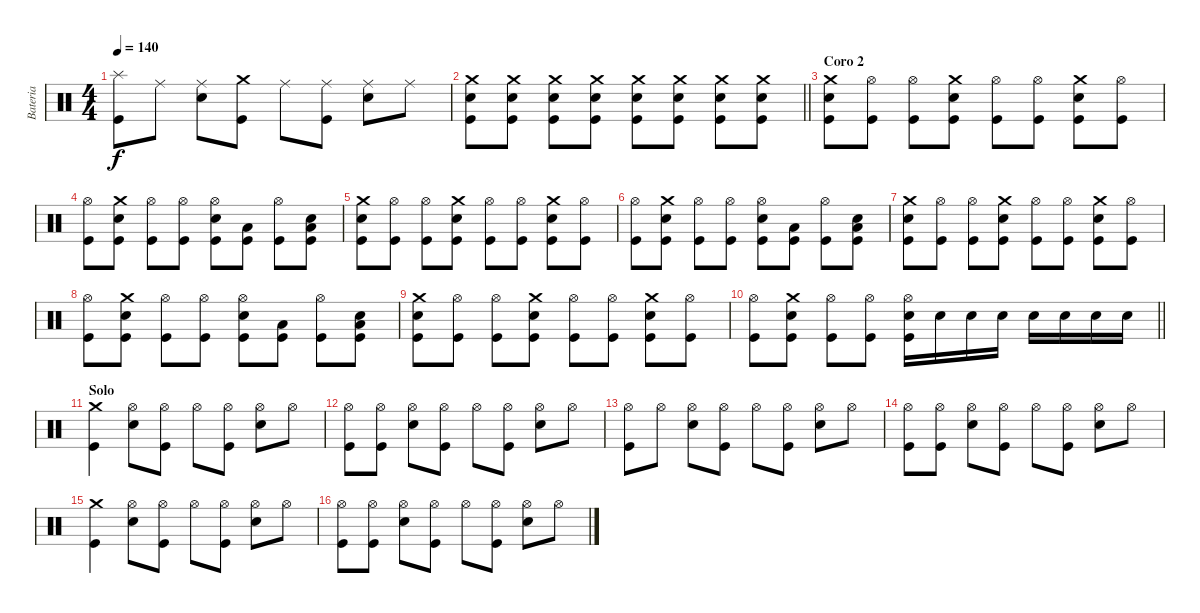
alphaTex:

\track ("Bateria" "Bateria") {instrument percussion}
\staff {score}
\articulation defaults
\ts (4 4)
\tempo 140
\clef neutral
\ks c
("Kick (hit)" "Splash (hit)").8{dy f} "Ride (middle)".8 ("Snare (hit) 2" "Ride (middle)").8 ("Kick (hit)" "Crash medium (hit)").8 "Ride (middle)".8 ("Kick (hit)" "Ride (middle)").8 ("Snare (hit) 2" "Ride (middle)").8 "Ride (middle)".8 |
\barLineRight lightlight
("Kick (hit)" "Snare (hit) 2" "Crash medium (hit)").8 ("Kick (hit)" "Snare (hit) 2" "Crash medium (hit)").8 ("Kick (hit)" "Snare (hit) 2" "Crash medium (hit)").8 ("Kick (hit)" "Snare (hit) 2" "Crash medium (hit)").8 ("Kick (hit)" "Snare (hit) 2" "Crash medium (hit)").8 ("Kick (hit)" "Snare (hit) 2" "Crash medium (hit)").8 ("Kick (hit)" "Snare (hit) 2" "Crash medium (hit)").8 ("Kick (hit)" "Snare (hit) 2" "Crash medium (hit)").8 |
\section ("" "Coro 2")
("Kick (hit)" "Snare (hit) 2" "Crash medium (hit)").8 ("Kick (hit)" "Hi-Hat (open)").8 ("Kick (hit)" "Hi-Hat (open)").8 ("Kick (hit)" "Snare (hit) 2" "Crash medium (hit)").8 ("Kick (hit)" "Hi-Hat (open)").8 ("Kick (hit)" "Hi-Hat (open)").8 ("Kick (hit)" "Snare (hit) 2" "Crash medium (hit)").8 ("Kick (hit)" "Hi-Hat (open)").8 |
("Kick (hit)" "Hi-Hat (open)").8 ("Kick (hit)" "Snare (hit) 2" "Crash medium (hit)").8 ("Kick (hit)" "Hi-Hat (open)").8 ("Kick (hit)" "Hi-Hat (open)").8 ("Kick (hit)" "Snare (hit) 2" "Hi-Hat (open)").8 ("Kick (hit)" "Low Floor Tom (hit)").8 ("Kick (hit)" "Hi-Hat (open)").8 ("Kick (hit)" "Snare (hit) 2" "Low Floor Tom (hit)").8 |
("Kick (hit)" "Snare (hit) 2" "Crash medium (hit)").8 ("Kick (hit)" "Hi-Hat (open)").8 ("Kick (hit)" "Hi-Hat (open)").8 ("Kick (hit)" "Snare (hit) 2" "Crash medium (hit)").8 ("Kick (hit)" "Hi-Hat (open)").8 ("Kick (hit)" "Hi-Hat (open)").8 ("Kick (hit)" "Snare (hit) 2" "Crash medium (hit)").8 ("Kick (hit)" "Hi-Hat (open)").8 |
("Kick (hit)" "Hi-Hat (open)").8 ("Kick (hit)" "Snare (hit) 2" "Crash medium (hit)").8 ("Kick (hit)" "Hi-Hat (open)").8 ("Kick (hit)" "Hi-Hat (open)").8 ("Kick (hit)" "Snare (hit) 2" "Hi-Hat (open)").8 ("Kick (hit)" "Low Floor Tom (hit)").8 ("Kick (hit)" "Hi-Hat (open)").8 ("Kick (hit)" "Snare (hit) 2" "Low Floor Tom (hit)").8 |
("Kick (hit)" "Snare (hit) 2" "Crash medium (hit)").8 ("Kick (hit)" "Hi-Hat (open)").8 ("Kick (hit)" "Hi-Hat (open)").8 ("Kick (hit)" "Snare (hit) 2" "Crash medium (hit)").8 ("Kick (hit)" "Hi-Hat (open)").8 ("Kick (hit)" "Hi-Hat (open)").8 ("Kick (hit)" "Snare (hit) 2" "Crash medium (hit)").8 ("Kick (hit)" "Hi-Hat (open)").8 |
("Kick (hit)" "Hi-Hat (open)").8 ("Kick (hit)" "Snare (hit) 2" "Crash medium (hit)").8 ("Kick (hit)" "Hi-Hat (open)").8 ("Kick (hit)" "Hi-Hat (open)").8 ("Kick (hit)" "Snare (hit) 2" "Hi-Hat (open)").8 ("Kick (hit)" "Low Floor Tom (hit)").8 ("Kick (hit)" "Hi-Hat (open)").8 ("Kick (hit)" "Snare (hit) 2" "Low Floor Tom (hit)").8 |
("Kick (hit)" "Snare (hit) 2" "Crash medium (hit)").8 ("Kick (hit)" "Hi-Hat (open)").8 ("Kick (hit)" "Hi-Hat (open)").8 ("Kick (hit)" "Snare (hit) 2" "Crash medium (hit)").8 ("Kick (hit)" "Hi-Hat (open)").8 ("Kick (hit)" "Hi-Hat (open)").8 ("Kick (hit)" "Snare (hit) 2" "Crash medium (hit)").8 ("Kick (hit)" "Hi-Hat (open)").8 |
\barLineRight lightlight
("Kick (hit)" "Hi-Hat (open)").8 ("Kick (hit)" "Snare (hit) 2" "Crash medium (hit)").8 ("Kick (hit)" "Hi-Hat (open)").8 ("Kick (hit)" "Hi-Hat (open)").8 ("Kick (hit)" "Snare (hit) 2" "Hi-Hat (open)").16 "Snare (hit) 2".16 "Snare (hit) 2".16 "Snare (hit) 2".16 "Snare (hit) 2".16 "Snare (hit) 2".16 "Snare (hit) 2".16 "Snare (hit) 2".16 |
\section ("" "Solo")
("Kick (hit)" "Crash medium (hit)").4 ("Snare (hit) 2" "Hi-Hat (open)").8 ("Kick (hit)" "Hi-Hat (open)").8 "Hi-Hat (open)".8 ("Kick (hit)" "Hi-Hat (open)").8 ("Snare (hit) 2" "Hi-Hat (open)").8 "Hi-Hat (open)".8 |
("Kick (hit)" "Hi-Hat (open)").8 ("Kick (hit)" "Hi-Hat (open)").8 ("Snare (hit) 2" "Hi-Hat (open)").8 ("Kick (hit)" "Hi-Hat (open)").8 "Hi-Hat (open)".8 ("Kick (hit)" "Hi-Hat (open)").8 ("Snare (hit) 2" "Hi-Hat (open)").8 "Hi-Hat (open)".8 |
("Kick (hit)" "Hi-Hat (open)").8 "Hi-Hat (open)".8 ("Snare (hit) 2" "Hi-Hat (open)").8 ("Kick (hit)" "Hi-Hat (open)").8 "Hi-Hat (open)".8 ("Kick (hit)" "Hi-Hat (open)").8 ("Snare (hit) 2" "Hi-Hat (open)").8 "Hi-Hat (open)".8 |
("Kick (hit)" "Hi-Hat (open)").8 ("Kick (hit)" "Hi-Hat (open)").8 ("Snare (hit) 2" "Hi-Hat (open)").8 ("Kick (hit)" "Hi-Hat (open)").8 "Hi-Hat (open)".8 ("Kick (hit)" "Hi-Hat (open)").8 ("Snare (hit) 2" "Hi-Hat (open)").8 "Hi-Hat (open)".8 |
("Kick (hit)" "Crash medium (hit)").4 ("Snare (hit) 2" "Hi-Hat (open)").8 ("Kick (hit)" "Hi-Hat (open)").8 "Hi-Hat (open)".8 ("Kick (hit)" "Hi-Hat (open)").8 ("Snare (hit) 2" "Hi-Hat (open)").8 "Hi-Hat (open)".8 |
("Kick (hit)" "Hi-Hat (open)").8 ("Kick (hit)" "Hi-Hat (open)").8 ("Snare (hit) 2" "Hi-Hat (open)").8 ("Kick (hit)" "Hi-Hat (open)").8 "Hi-Hat (open)".8 ("Kick (hit)" "Hi-Hat (open)").8 ("Snare (hit) 2" "Hi-Hat (open)").8 "Hi-Hat (open)".8
